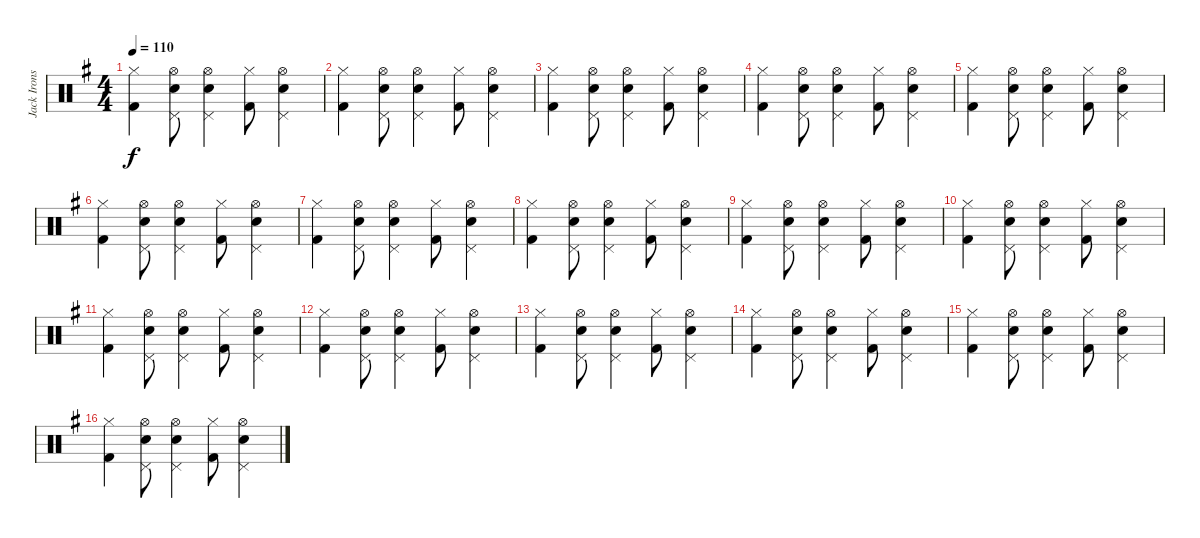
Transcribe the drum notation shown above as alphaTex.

\track ("Jack Irons" "Jack Irons") {instrument percussion}
\staff {score}
\articulation defaults
\ts (4 4)
\tempo 110
\clef neutral
\ks g
("Hi-Hat (closed)" "Kick (hit) 2").4{dy f} ("Hi-Hat (open)" "Snare (hit) 2" "Pedal Hi-Hat (hit)").8 ("Hi-Hat (open)" "Snare (hit) 2" "Pedal Hi-Hat (hit)").4 ("Hi-Hat (closed)" "Kick (hit) 2").8 ("Hi-Hat (open)" "Snare (hit) 2" "Pedal Hi-Hat (hit)").4 |
("Hi-Hat (closed)" "Kick (hit) 2").4 ("Hi-Hat (open)" "Snare (hit) 2" "Pedal Hi-Hat (hit)").8 ("Hi-Hat (open)" "Snare (hit) 2" "Pedal Hi-Hat (hit)").4 ("Hi-Hat (closed)" "Kick (hit) 2").8 ("Hi-Hat (open)" "Snare (hit) 2" "Pedal Hi-Hat (hit)").4 |
("Hi-Hat (closed)" "Kick (hit) 2").4 ("Hi-Hat (open)" "Snare (hit) 2" "Pedal Hi-Hat (hit)").8 ("Hi-Hat (open)" "Snare (hit) 2" "Pedal Hi-Hat (hit)").4 ("Hi-Hat (closed)" "Kick (hit) 2").8 ("Hi-Hat (open)" "Snare (hit) 2" "Pedal Hi-Hat (hit)").4 |
("Hi-Hat (closed)" "Kick (hit) 2").4 ("Hi-Hat (open)" "Snare (hit) 2" "Pedal Hi-Hat (hit)").8 ("Hi-Hat (open)" "Snare (hit) 2" "Pedal Hi-Hat (hit)").4 ("Hi-Hat (closed)" "Kick (hit) 2").8 ("Hi-Hat (open)" "Snare (hit) 2" "Pedal Hi-Hat (hit)").4 |
("Hi-Hat (closed)" "Kick (hit) 2").4 ("Hi-Hat (open)" "Snare (hit) 2" "Pedal Hi-Hat (hit)").8 ("Hi-Hat (open)" "Snare (hit) 2" "Pedal Hi-Hat (hit)").4 ("Hi-Hat (closed)" "Kick (hit) 2").8 ("Hi-Hat (open)" "Snare (hit) 2" "Pedal Hi-Hat (hit)").4 |
("Hi-Hat (closed)" "Kick (hit) 2").4 ("Hi-Hat (open)" "Snare (hit) 2" "Pedal Hi-Hat (hit)").8 ("Hi-Hat (open)" "Snare (hit) 2" "Pedal Hi-Hat (hit)").4 ("Hi-Hat (closed)" "Kick (hit) 2").8 ("Hi-Hat (open)" "Snare (hit) 2" "Pedal Hi-Hat (hit)").4 |
("Hi-Hat (closed)" "Kick (hit) 2").4 ("Hi-Hat (open)" "Snare (hit) 2" "Pedal Hi-Hat (hit)").8 ("Hi-Hat (open)" "Snare (hit) 2" "Pedal Hi-Hat (hit)").4 ("Hi-Hat (closed)" "Kick (hit) 2").8 ("Hi-Hat (open)" "Snare (hit) 2" "Pedal Hi-Hat (hit)").4 |
("Hi-Hat (closed)" "Kick (hit) 2").4 ("Hi-Hat (open)" "Snare (hit) 2" "Pedal Hi-Hat (hit)").8 ("Hi-Hat (open)" "Snare (hit) 2" "Pedal Hi-Hat (hit)").4 ("Hi-Hat (closed)" "Kick (hit) 2").8 ("Hi-Hat (open)" "Snare (hit) 2" "Pedal Hi-Hat (hit)").4 |
("Hi-Hat (closed)" "Kick (hit) 2").4 ("Hi-Hat (open)" "Snare (hit) 2" "Pedal Hi-Hat (hit)").8 ("Hi-Hat (open)" "Snare (hit) 2" "Pedal Hi-Hat (hit)").4 ("Hi-Hat (closed)" "Kick (hit) 2").8 ("Hi-Hat (open)" "Snare (hit) 2" "Pedal Hi-Hat (hit)").4 |
("Hi-Hat (closed)" "Kick (hit) 2").4 ("Hi-Hat (open)" "Snare (hit) 2" "Pedal Hi-Hat (hit)").8 ("Hi-Hat (open)" "Snare (hit) 2" "Pedal Hi-Hat (hit)").4 ("Hi-Hat (closed)" "Kick (hit) 2").8 ("Hi-Hat (open)" "Snare (hit) 2" "Pedal Hi-Hat (hit)").4 |
("Hi-Hat (closed)" "Kick (hit) 2").4 ("Hi-Hat (open)" "Snare (hit) 2" "Pedal Hi-Hat (hit)").8 ("Hi-Hat (open)" "Snare (hit) 2" "Pedal Hi-Hat (hit)").4 ("Hi-Hat (closed)" "Kick (hit) 2").8 ("Hi-Hat (open)" "Snare (hit) 2" "Pedal Hi-Hat (hit)").4 |
("Hi-Hat (closed)" "Kick (hit) 2").4 ("Hi-Hat (open)" "Snare (hit) 2" "Pedal Hi-Hat (hit)").8 ("Hi-Hat (open)" "Snare (hit) 2" "Pedal Hi-Hat (hit)").4 ("Hi-Hat (closed)" "Kick (hit) 2").8 ("Hi-Hat (open)" "Snare (hit) 2" "Pedal Hi-Hat (hit)").4 |
("Hi-Hat (closed)" "Kick (hit) 2").4 ("Hi-Hat (open)" "Snare (hit) 2" "Pedal Hi-Hat (hit)").8 ("Hi-Hat (open)" "Snare (hit) 2" "Pedal Hi-Hat (hit)").4 ("Hi-Hat (closed)" "Kick (hit) 2").8 ("Hi-Hat (open)" "Snare (hit) 2" "Pedal Hi-Hat (hit)").4 |
("Hi-Hat (closed)" "Kick (hit) 2").4 ("Hi-Hat (open)" "Snare (hit) 2" "Pedal Hi-Hat (hit)").8 ("Hi-Hat (open)" "Snare (hit) 2" "Pedal Hi-Hat (hit)").4 ("Hi-Hat (closed)" "Kick (hit) 2").8 ("Hi-Hat (open)" "Snare (hit) 2" "Pedal Hi-Hat (hit)").4 |
("Hi-Hat (closed)" "Kick (hit) 2").4 ("Hi-Hat (open)" "Snare (hit) 2" "Pedal Hi-Hat (hit)").8 ("Hi-Hat (open)" "Snare (hit) 2" "Pedal Hi-Hat (hit)").4 ("Hi-Hat (closed)" "Kick (hit) 2").8 ("Hi-Hat (open)" "Snare (hit) 2" "Pedal Hi-Hat (hit)").4 |
("Hi-Hat (closed)" "Kick (hit) 2").4 ("Hi-Hat (open)" "Snare (hit) 2" "Pedal Hi-Hat (hit)").8 ("Hi-Hat (open)" "Snare (hit) 2" "Pedal Hi-Hat (hit)").4 ("Hi-Hat (closed)" "Kick (hit) 2").8 ("Hi-Hat (open)" "Snare (hit) 2" "Pedal Hi-Hat (hit)").4
